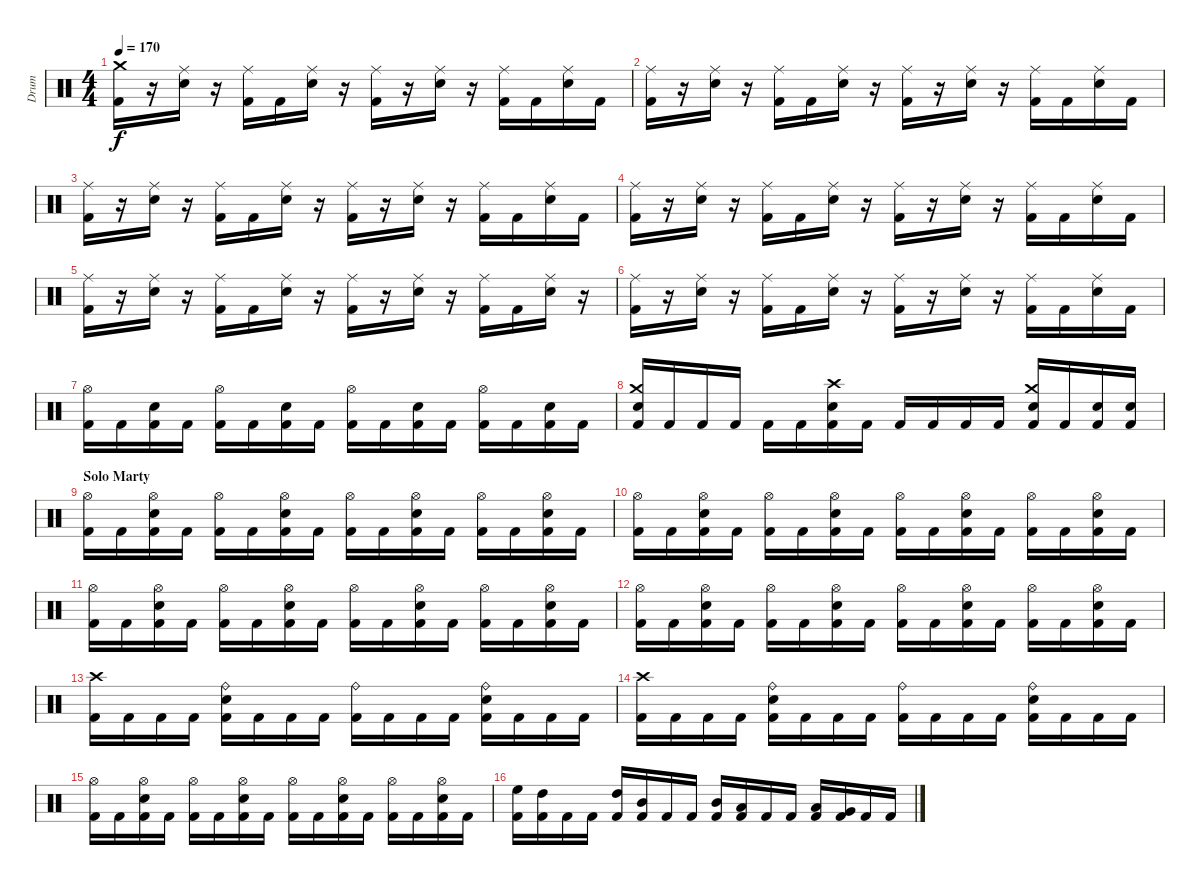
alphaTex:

\track ("Drum" "Drum") {instrument percussion}
\staff {score}
\articulation defaults
\ts (4 4)
\tempo 170
\clef neutral
\ks c
("Kick (hit) 2" "Crash medium (hit)").16{dy f} r.16 ("Electric Snare (hit)" "Ride (middle)").16 r.16 ("Kick (hit) 2" "Ride (middle)").16 "Kick (hit) 2".16 ("Electric Snare (hit)" "Ride (middle)").16 r.16 ("Kick (hit) 2" "Ride (middle)").16 r.16 ("Electric Snare (hit)" "Ride (middle)").16 r.16 ("Kick (hit) 2" "Ride (middle)").16 "Kick (hit) 2".16 ("Electric Snare (hit)" "Ride (middle)").16 "Kick (hit) 2".16 |
("Kick (hit) 2" "Ride (middle)").16 r.16 ("Electric Snare (hit)" "Ride (middle)").16 r.16 ("Kick (hit) 2" "Ride (middle)").16 "Kick (hit) 2".16 ("Electric Snare (hit)" "Ride (middle)").16 r.16 ("Kick (hit) 2" "Ride (middle)").16 r.16 ("Electric Snare (hit)" "Ride (middle)").16 r.16 ("Kick (hit) 2" "Ride (middle)").16 "Kick (hit) 2".16 ("Electric Snare (hit)" "Ride (middle)").16 "Kick (hit) 2".16 |
("Kick (hit) 2" "Ride (middle)").16 r.16 ("Electric Snare (hit)" "Ride (middle)").16 r.16 ("Kick (hit) 2" "Ride (middle)").16 "Kick (hit) 2".16 ("Electric Snare (hit)" "Ride (middle)").16 r.16 ("Kick (hit) 2" "Ride (middle)").16 r.16 ("Electric Snare (hit)" "Ride (middle)").16 r.16 ("Kick (hit) 2" "Ride (middle)").16 "Kick (hit) 2".16 ("Electric Snare (hit)" "Ride (middle)").16 "Kick (hit) 2".16 |
("Kick (hit) 2" "Ride (middle)").16 r.16 ("Electric Snare (hit)" "Ride (middle)").16 r.16 ("Kick (hit) 2" "Ride (middle)").16 "Kick (hit) 2".16 ("Electric Snare (hit)" "Ride (middle)").16 r.16 ("Kick (hit) 2" "Ride (middle)").16 r.16 ("Electric Snare (hit)" "Ride (middle)").16 r.16 ("Kick (hit) 2" "Ride (middle)").16 "Kick (hit) 2".16 ("Electric Snare (hit)" "Ride (middle)").16 "Kick (hit) 2".16 |
("Kick (hit) 2" "Ride (middle)").16 r.16 ("Electric Snare (hit)" "Ride (middle)").16 r.16 ("Kick (hit) 2" "Ride (middle)").16 "Kick (hit) 2".16 ("Electric Snare (hit)" "Ride (middle)").16 r.16 ("Kick (hit) 2" "Ride (middle)").16 r.16 ("Electric Snare (hit)" "Ride (middle)").16 r.16 ("Kick (hit) 2" "Ride (middle)").16 "Kick (hit) 2".16 ("Electric Snare (hit)" "Ride (middle)").16 r.16 |
("Kick (hit) 2" "Ride (middle)").16 r.16 ("Electric Snare (hit)" "Ride (middle)").16 r.16 ("Kick (hit) 2" "Ride (middle)").16 "Kick (hit) 2".16 ("Electric Snare (hit)" "Ride (middle)").16 r.16 ("Kick (hit) 2" "Ride (middle)").16 r.16 ("Electric Snare (hit)" "Ride (middle)").16 r.16 ("Kick (hit) 2" "Ride (middle)").16 "Kick (hit) 2".16 ("Electric Snare (hit)" "Ride (middle)").16 "Kick (hit) 2".16 |
("Kick (hit) 2" "Hi-Hat (open)").16 "Kick (hit) 2".16 ("Electric Snare (hit)" "Kick (hit) 2").16 "Kick (hit) 2".16 ("Kick (hit) 2" "Hi-Hat (open)").16 "Kick (hit) 2".16 ("Electric Snare (hit)" "Kick (hit) 2").16 "Kick (hit) 2".16 ("Kick (hit) 2" "Hi-Hat (open)").16 "Kick (hit) 2".16 ("Kick (hit) 2" "Electric Snare (hit)").16 "Kick (hit) 2".16 ("Kick (hit) 2" "Hi-Hat (open)").16 "Kick (hit) 2".16 ("Electric Snare (hit)" "Kick (hit) 2").16 "Kick (hit) 2".16 |
("Kick (hit) 2" "Electric Snare (hit)" "Crash medium (hit)").16 "Kick (hit) 2".16 "Kick (hit) 2".16 "Kick (hit) 2".16 "Kick (hit) 2".16 "Kick (hit) 2".16 ("Electric Snare (hit)" "Kick (hit) 2" "Crash high (hit)").16 "Kick (hit) 2".16 "Kick (hit) 2".16 "Kick (hit) 2".16 "Kick (hit) 2".16 "Kick (hit) 2".16 ("Kick (hit) 2" "Electric Snare (hit)" "Crash medium (hit)").16 "Kick (hit) 2".16 ("Kick (hit) 2" "Electric Snare (hit)").16 ("Kick (hit) 2" "Electric Snare (hit)").16 |
\section ("" "Solo Marty")
("Kick (hit) 2" "Hi-Hat (open)").16 "Kick (hit) 2".16 ("Electric Snare (hit)" "Kick (hit) 2" "Hi-Hat (open)").16 "Kick (hit) 2".16 ("Kick (hit) 2" "Hi-Hat (open)").16 "Kick (hit) 2".16 ("Kick (hit) 2" "Electric Snare (hit)" "Hi-Hat (open)").16 "Kick (hit) 2".16 ("Kick (hit) 2" "Hi-Hat (open)").16 "Kick (hit) 2".16 ("Electric Snare (hit)" "Kick (hit) 2" "Hi-Hat (open)").16 "Kick (hit) 2".16 ("Kick (hit) 2" "Hi-Hat (open)").16 "Kick (hit) 2".16 ("Kick (hit) 2" "Electric Snare (hit)" "Hi-Hat (open)").16 "Kick (hit) 2".16 |
("Kick (hit) 2" "Hi-Hat (open)").16 "Kick (hit) 2".16 ("Kick (hit) 2" "Electric Snare (hit)" "Hi-Hat (open)").16 "Kick (hit) 2".16 ("Kick (hit) 2" "Hi-Hat (open)").16 "Kick (hit) 2".16 ("Electric Snare (hit)" "Kick (hit) 2" "Hi-Hat (open)").16 "Kick (hit) 2".16 ("Kick (hit) 2" "Hi-Hat (open)").16 "Kick (hit) 2".16 ("Electric Snare (hit)" "Kick (hit) 2" "Hi-Hat (open)").16 "Kick (hit) 2".16 ("Kick (hit) 2" "Hi-Hat (open)").16 "Kick (hit) 2".16 ("Kick (hit) 2" "Electric Snare (hit)" "Hi-Hat (open)").16 "Kick (hit) 2".16 |
("Kick (hit) 2" "Hi-Hat (open)").16 "Kick (hit) 2".16 ("Kick (hit) 2" "Electric Snare (hit)" "Hi-Hat (open)").16 "Kick (hit) 2".16 ("Kick (hit) 2" "Hi-Hat (open)").16 "Kick (hit) 2".16 ("Electric Snare (hit)" "Kick (hit) 2" "Hi-Hat (open)").16 "Kick (hit) 2".16 ("Kick (hit) 2" "Hi-Hat (open)").16 "Kick (hit) 2".16 ("Electric Snare (hit)" "Kick (hit) 2" "Hi-Hat (open)").16 "Kick (hit) 2".16 ("Kick (hit) 2" "Hi-Hat (open)").16 "Kick (hit) 2".16 ("Kick (hit) 2" "Electric Snare (hit)" "Hi-Hat (open)").16 "Kick (hit) 2".16 |
("Kick (hit) 2" "Hi-Hat (open)").16 "Kick (hit) 2".16 ("Electric Snare (hit)" "Kick (hit) 2" "Hi-Hat (open)").16 "Kick (hit) 2".16 ("Kick (hit) 2" "Hi-Hat (open)").16 "Kick (hit) 2".16 ("Kick (hit) 2" "Electric Snare (hit)" "Hi-Hat (open)").16 "Kick (hit) 2".16 ("Kick (hit) 2" "Hi-Hat (open)").16 "Kick (hit) 2".16 ("Kick (hit) 2" "Electric Snare (hit)" "Hi-Hat (open)").16 "Kick (hit) 2".16 ("Kick (hit) 2" "Hi-Hat (open)").16 "Kick (hit) 2".16 ("Electric Snare (hit)" "Kick (hit) 2" "Hi-Hat (open)").16 "Kick (hit) 2".16 |
("Kick (hit) 2" "Crash high (hit)").16 "Kick (hit) 2".16 "Kick (hit) 2".16 "Kick (hit) 2".16 ("Kick (hit) 2" "Electric Snare (hit)" "Ride (bell)").16 "Kick (hit) 2".16 "Kick (hit) 2".16 "Kick (hit) 2".16 ("Kick (hit) 2" "Ride (bell)").16 "Kick (hit) 2".16 "Kick (hit) 2".16 "Kick (hit) 2".16 ("Kick (hit) 2" "Electric Snare (hit)" "Ride (bell)").16 "Kick (hit) 2".16 "Kick (hit) 2".16 "Kick (hit) 2".16 |
("Kick (hit) 2" "Crash high (hit)").16 "Kick (hit) 2".16 "Kick (hit) 2".16 "Kick (hit) 2".16 ("Kick (hit) 2" "Electric Snare (hit)" "Ride (bell)").16 "Kick (hit) 2".16 "Kick (hit) 2".16 "Kick (hit) 2".16 ("Kick (hit) 2" "Ride (bell)").16 "Kick (hit) 2".16 "Kick (hit) 2".16 "Kick (hit) 2".16 ("Electric Snare (hit)" "Kick (hit) 2" "Ride (bell)").16 "Kick (hit) 2".16 "Kick (hit) 2".16 "Kick (hit) 2".16 |
("Kick (hit) 2" "Hi-Hat (open)").16 "Kick (hit) 2".16 ("Electric Snare (hit)" "Kick (hit) 2" "Hi-Hat (open)").16 "Kick (hit) 2".16 ("Kick (hit) 2" "Hi-Hat (open)").16 "Kick (hit) 2".16 ("Electric Snare (hit)" "Kick (hit) 2" "Hi-Hat (open)").16 "Kick (hit) 2".16 ("Kick (hit) 2" "Hi-Hat (open)").16 "Kick (hit) 2".16 ("Kick (hit) 2" "Electric Snare (hit)" "Hi-Hat (open)").16 "Kick (hit) 2".16 ("Kick (hit) 2" "Hi-Hat (open)").16 "Kick (hit) 2".16 ("Electric Snare (hit)" "Kick (hit) 2" "Hi-Hat (open)").16 "Kick (hit) 2".16 |
("Kick (hit) 2" "High Floor Tom (hit)").16 ("Kick (hit) 2" "High Tom (hit)").16 "Kick (hit) 2".16 "Kick (hit) 2".16 ("Kick (hit) 2" "High Tom (hit)").16 ("Kick (hit) 2" "Mid Tom (hit)").16 "Kick (hit) 2".16 "Kick (hit) 2".16 ("Kick (hit) 2" "Mid Tom (hit)").16 ("Kick (hit) 2" "Low Tom (hit)").16 "Kick (hit) 2".16 "Kick (hit) 2".16 ("Kick (hit) 2" "Low Tom (hit)").16 ("Kick (hit) 2" "Very Low Tom (hit)").16 "Kick (hit) 2".16 "Kick (hit) 2".16
